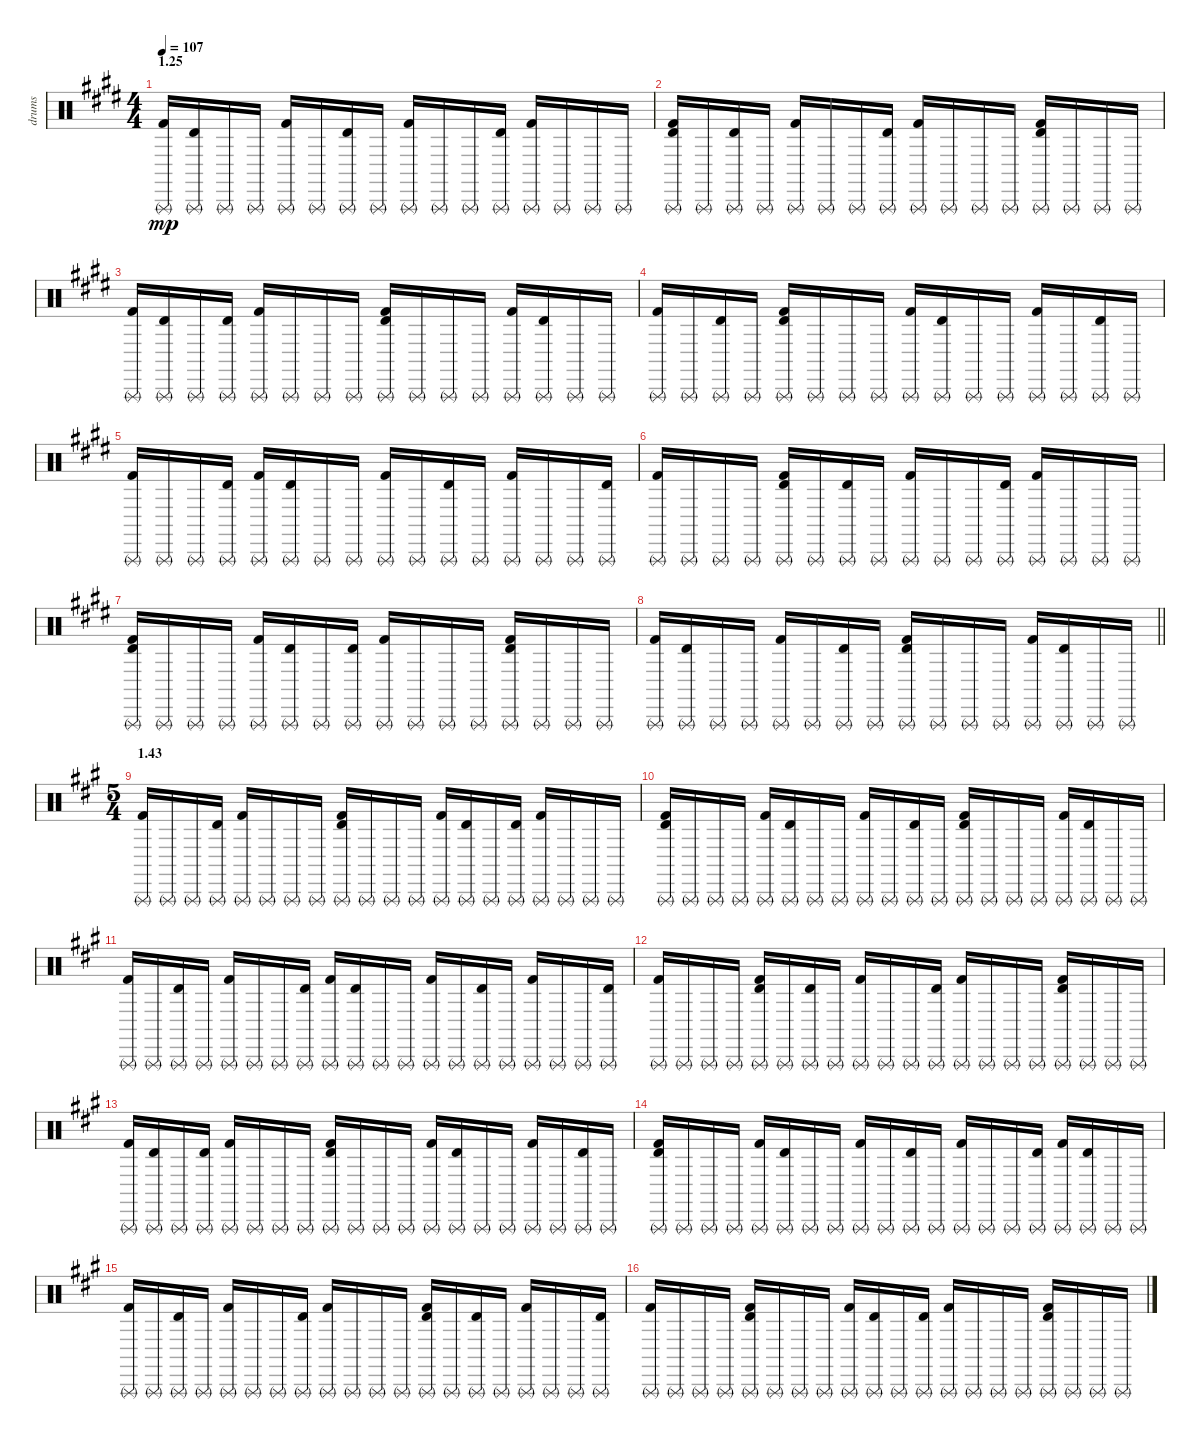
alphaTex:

\track ("drums" "drums") {instrument percussion}
\staff {score}
\articulation defaults
\ts (4 4)
\section ("" "1.25")
\tempo 107
\clef neutral
\ks e
("Triangle (rnute)" "Kick (hit) 2").16{dy mp} ("Triangle (rnute)" "Timbale high (hit)").16 "Triangle (rnute)".16 "Triangle (rnute)".16 ("Triangle (rnute)" "Kick (hit) 2").16 "Triangle (rnute)".16 ("Triangle (rnute)" "Timbale high (hit)").16 "Triangle (rnute)".16 ("Triangle (rnute)" "Kick (hit) 2").16 "Triangle (rnute)".16 "Triangle (rnute)".16 ("Triangle (rnute)" "Timbale high (hit)").16 ("Triangle (rnute)" "Kick (hit) 2").16 "Triangle (rnute)".16 "Triangle (rnute)".16 "Triangle (rnute)".16 |
("Triangle (rnute)" "Timbale high (hit)" "Kick (hit) 2").16 "Triangle (rnute)".16 ("Triangle (rnute)" "Timbale high (hit)").16 "Triangle (rnute)".16 ("Triangle (rnute)" "Kick (hit) 2").16 "Triangle (rnute)".16 "Triangle (rnute)".16 ("Triangle (rnute)" "Timbale high (hit)").16 ("Triangle (rnute)" "Kick (hit) 2").16 "Triangle (rnute)".16 "Triangle (rnute)".16 "Triangle (rnute)".16 ("Triangle (rnute)" "Timbale high (hit)" "Kick (hit) 2").16 "Triangle (rnute)".16 "Triangle (rnute)".16 "Triangle (rnute)".16 |
("Triangle (rnute)" "Kick (hit) 2").16 ("Triangle (rnute)" "Timbale high (hit)").16 "Triangle (rnute)".16 ("Triangle (rnute)" "Timbale high (hit)").16 ("Triangle (rnute)" "Kick (hit) 2").16 "Triangle (rnute)".16 "Triangle (rnute)".16 "Triangle (rnute)".16 ("Triangle (rnute)" "Timbale high (hit)" "Kick (hit) 2").16 "Triangle (rnute)".16 "Triangle (rnute)".16 "Triangle (rnute)".16 ("Triangle (rnute)" "Kick (hit) 2").16 ("Triangle (rnute)" "Timbale high (hit)").16 "Triangle (rnute)".16 "Triangle (rnute)".16 |
("Triangle (rnute)" "Kick (hit) 2").16 "Triangle (rnute)".16 ("Triangle (rnute)" "Timbale high (hit)").16 "Triangle (rnute)".16 ("Triangle (rnute)" "Timbale high (hit)" "Kick (hit) 2").16 "Triangle (rnute)".16 "Triangle (rnute)".16 "Triangle (rnute)".16 ("Triangle (rnute)" "Kick (hit) 2").16 ("Triangle (rnute)" "Timbale high (hit)").16 "Triangle (rnute)".16 "Triangle (rnute)".16 ("Triangle (rnute)" "Kick (hit) 2").16 "Triangle (rnute)".16 ("Triangle (rnute)" "Timbale high (hit)").16 "Triangle (rnute)".16 |
("Triangle (rnute)" "Kick (hit) 2").16 "Triangle (rnute)".16 "Triangle (rnute)".16 ("Triangle (rnute)" "Timbale high (hit)").16 ("Triangle (rnute)" "Kick (hit) 2").16 ("Triangle (rnute)" "Timbale high (hit)").16 "Triangle (rnute)".16 "Triangle (rnute)".16 ("Triangle (rnute)" "Kick (hit) 2").16 "Triangle (rnute)".16 ("Triangle (rnute)" "Timbale high (hit)").16 "Triangle (rnute)".16 ("Triangle (rnute)" "Kick (hit) 2").16 "Triangle (rnute)".16 "Triangle (rnute)".16 ("Triangle (rnute)" "Timbale high (hit)").16 |
("Triangle (rnute)" "Kick (hit) 2").16 "Triangle (rnute)".16 "Triangle (rnute)".16 "Triangle (rnute)".16 ("Triangle (rnute)" "Timbale high (hit)" "Kick (hit) 2").16 "Triangle (rnute)".16 ("Triangle (rnute)" "Timbale high (hit)").16 "Triangle (rnute)".16 ("Triangle (rnute)" "Kick (hit) 2").16 "Triangle (rnute)".16 "Triangle (rnute)".16 ("Triangle (rnute)" "Timbale high (hit)").16 ("Triangle (rnute)" "Kick (hit) 2").16 "Triangle (rnute)".16 "Triangle (rnute)".16 "Triangle (rnute)".16 |
("Triangle (rnute)" "Timbale high (hit)" "Kick (hit) 2").16 "Triangle (rnute)".16 "Triangle (rnute)".16 "Triangle (rnute)".16 ("Triangle (rnute)" "Kick (hit) 2").16 ("Triangle (rnute)" "Timbale high (hit)").16 "Triangle (rnute)".16 ("Triangle (rnute)" "Timbale high (hit)").16 ("Triangle (rnute)" "Kick (hit) 2").16 "Triangle (rnute)".16 "Triangle (rnute)".16 "Triangle (rnute)".16 ("Triangle (rnute)" "Timbale high (hit)" "Kick (hit) 2").16 "Triangle (rnute)".16 "Triangle (rnute)".16 "Triangle (rnute)".16 |
\barLineRight lightlight
("Triangle (rnute)" "Kick (hit) 2").16 ("Triangle (rnute)" "Timbale high (hit)").16 "Triangle (rnute)".16 "Triangle (rnute)".16 ("Triangle (rnute)" "Kick (hit) 2").16 "Triangle (rnute)".16 ("Triangle (rnute)" "Timbale high (hit)").16 "Triangle (rnute)".16 ("Triangle (rnute)" "Timbale high (hit)" "Kick (hit) 2").16 "Triangle (rnute)".16 "Triangle (rnute)".16 "Triangle (rnute)".16 ("Triangle (rnute)" "Kick (hit) 2").16 ("Triangle (rnute)" "Timbale high (hit)").16 "Triangle (rnute)".16 "Triangle (rnute)".16 |
\ts (5 4)
\section ("" "1.43")
\ks a
("Triangle (rnute)" "Kick (hit) 2").16 "Triangle (rnute)".16 "Triangle (rnute)".16 ("Triangle (rnute)" "Timbale high (hit)").16 ("Triangle (rnute)" "Kick (hit) 2").16 "Triangle (rnute)".16 "Triangle (rnute)".16 "Triangle (rnute)".16 ("Triangle (rnute)" "Timbale high (hit)" "Kick (hit) 2").16 "Triangle (rnute)".16 "Triangle (rnute)".16 "Triangle (rnute)".16 ("Triangle (rnute)" "Kick (hit) 2").16 ("Triangle (rnute)" "Timbale high (hit)").16 "Triangle (rnute)".16 ("Triangle (rnute)" "Timbale high (hit)").16 ("Triangle (rnute)" "Kick (hit) 2").16 "Triangle (rnute)".16 "Triangle (rnute)".16 "Triangle (rnute)".16 |
("Triangle (rnute)" "Timbale high (hit)" "Kick (hit) 2").16 "Triangle (rnute)".16 "Triangle (rnute)".16 "Triangle (rnute)".16 ("Triangle (rnute)" "Kick (hit) 2").16 ("Triangle (rnute)" "Timbale high (hit)").16 "Triangle (rnute)".16 "Triangle (rnute)".16 ("Triangle (rnute)" "Kick (hit) 2").16 "Triangle (rnute)".16 ("Triangle (rnute)" "Timbale high (hit)").16 "Triangle (rnute)".16 ("Triangle (rnute)" "Timbale high (hit)" "Kick (hit) 2").16 "Triangle (rnute)".16 "Triangle (rnute)".16 "Triangle (rnute)".16 ("Triangle (rnute)" "Kick (hit) 2").16 ("Triangle (rnute)" "Timbale high (hit)").16 "Triangle (rnute)".16 "Triangle (rnute)".16 |
("Triangle (rnute)" "Kick (hit) 2").16 "Triangle (rnute)".16 ("Triangle (rnute)" "Timbale high (hit)").16 "Triangle (rnute)".16 ("Triangle (rnute)" "Kick (hit) 2").16 "Triangle (rnute)".16 "Triangle (rnute)".16 ("Triangle (rnute)" "Timbale high (hit)").16 ("Triangle (rnute)" "Kick (hit) 2").16 ("Triangle (rnute)" "Timbale high (hit)").16 "Triangle (rnute)".16 "Triangle (rnute)".16 ("Triangle (rnute)" "Kick (hit) 2").16 "Triangle (rnute)".16 ("Triangle (rnute)" "Timbale high (hit)").16 "Triangle (rnute)".16 ("Triangle (rnute)" "Kick (hit) 2").16 "Triangle (rnute)".16 "Triangle (rnute)".16 ("Triangle (rnute)" "Timbale high (hit)").16 |
("Triangle (rnute)" "Kick (hit) 2").16 "Triangle (rnute)".16 "Triangle (rnute)".16 "Triangle (rnute)".16 ("Triangle (rnute)" "Timbale high (hit)" "Kick (hit) 2").16 "Triangle (rnute)".16 ("Triangle (rnute)" "Timbale high (hit)").16 "Triangle (rnute)".16 ("Triangle (rnute)" "Kick (hit) 2").16 "Triangle (rnute)".16 "Triangle (rnute)".16 ("Triangle (rnute)" "Timbale high (hit)").16 ("Triangle (rnute)" "Kick (hit) 2").16 "Triangle (rnute)".16 "Triangle (rnute)".16 "Triangle (rnute)".16 ("Triangle (rnute)" "Timbale high (hit)" "Kick (hit) 2").16 "Triangle (rnute)".16 "Triangle (rnute)".16 "Triangle (rnute)".16 |
("Triangle (rnute)" "Kick (hit) 2").16 ("Triangle (rnute)" "Timbale high (hit)").16 "Triangle (rnute)".16 ("Triangle (rnute)" "Timbale high (hit)").16 ("Triangle (rnute)" "Kick (hit) 2").16 "Triangle (rnute)".16 "Triangle (rnute)".16 "Triangle (rnute)".16 ("Triangle (rnute)" "Timbale high (hit)" "Kick (hit) 2").16 "Triangle (rnute)".16 "Triangle (rnute)".16 "Triangle (rnute)".16 ("Triangle (rnute)" "Kick (hit) 2").16 ("Triangle (rnute)" "Timbale high (hit)").16 "Triangle (rnute)".16 "Triangle (rnute)".16 ("Triangle (rnute)" "Kick (hit) 2").16 "Triangle (rnute)".16 ("Triangle (rnute)" "Timbale high (hit)").16 "Triangle (rnute)".16 |
("Triangle (rnute)" "Timbale high (hit)" "Kick (hit) 2").16 "Triangle (rnute)".16 "Triangle (rnute)".16 "Triangle (rnute)".16 ("Triangle (rnute)" "Kick (hit) 2").16 ("Triangle (rnute)" "Timbale high (hit)").16 "Triangle (rnute)".16 "Triangle (rnute)".16 ("Triangle (rnute)" "Kick (hit) 2").16 "Triangle (rnute)".16 ("Triangle (rnute)" "Timbale high (hit)").16 "Triangle (rnute)".16 ("Triangle (rnute)" "Kick (hit) 2").16 "Triangle (rnute)".16 "Triangle (rnute)".16 ("Triangle (rnute)" "Timbale high (hit)").16 ("Triangle (rnute)" "Kick (hit) 2").16 ("Triangle (rnute)" "Timbale high (hit)").16 "Triangle (rnute)".16 "Triangle (rnute)".16 |
("Triangle (rnute)" "Kick (hit) 2").16 "Triangle (rnute)".16 ("Triangle (rnute)" "Timbale high (hit)").16 "Triangle (rnute)".16 ("Triangle (rnute)" "Kick (hit) 2").16 "Triangle (rnute)".16 "Triangle (rnute)".16 ("Triangle (rnute)" "Timbale high (hit)").16 ("Triangle (rnute)" "Kick (hit) 2").16 "Triangle (rnute)".16 "Triangle (rnute)".16 "Triangle (rnute)".16 ("Triangle (rnute)" "Timbale high (hit)" "Kick (hit) 2").16 "Triangle (rnute)".16 ("Triangle (rnute)" "Timbale high (hit)").16 "Triangle (rnute)".16 ("Triangle (rnute)" "Kick (hit) 2").16 "Triangle (rnute)".16 "Triangle (rnute)".16 ("Triangle (rnute)" "Timbale high (hit)").16 |
("Triangle (rnute)" "Kick (hit) 2").16 "Triangle (rnute)".16 "Triangle (rnute)".16 "Triangle (rnute)".16 ("Triangle (rnute)" "Timbale high (hit)" "Kick (hit) 2").16 "Triangle (rnute)".16 "Triangle (rnute)".16 "Triangle (rnute)".16 ("Triangle (rnute)" "Kick (hit) 2").16 ("Triangle (rnute)" "Timbale high (hit)").16 "Triangle (rnute)".16 ("Triangle (rnute)" "Timbale high (hit)").16 ("Triangle (rnute)" "Kick (hit) 2").16 "Triangle (rnute)".16 "Triangle (rnute)".16 "Triangle (rnute)".16 ("Triangle (rnute)" "Timbale high (hit)" "Kick (hit) 2").16 "Triangle (rnute)".16 "Triangle (rnute)".16 "Triangle (rnute)".16
